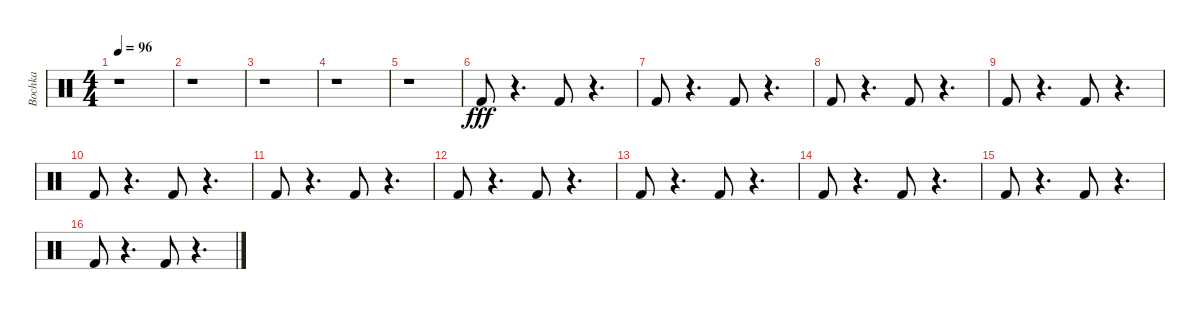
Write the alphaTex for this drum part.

\track ("Bochka" "Bochka") {instrument percussion}
\staff {score}
\articulation defaults
\ts (4 4)
\tempo 96
\clef neutral
\ks c
r.1{dy fff} |
r.1 |
r.1 |
r.1 |
r.1 |
"Kick (hit) 2".8 r.4{d} "Kick (hit) 2".8 r.4{d} |
"Kick (hit) 2".8 r.4{d} "Kick (hit) 2".8 r.4{d} |
"Kick (hit) 2".8 r.4{d} "Kick (hit) 2".8 r.4{d} |
"Kick (hit) 2".8 r.4{d} "Kick (hit) 2".8 r.4{d} |
"Kick (hit) 2".8 r.4{d} "Kick (hit) 2".8 r.4{d} |
"Kick (hit) 2".8 r.4{d} "Kick (hit) 2".8 r.4{d} |
"Kick (hit) 2".8 r.4{d} "Kick (hit) 2".8 r.4{d} |
"Kick (hit) 2".8 r.4{d} "Kick (hit) 2".8 r.4{d} |
"Kick (hit) 2".8 r.4{d} "Kick (hit) 2".8 r.4{d} |
"Kick (hit) 2".8 r.4{d} "Kick (hit) 2".8 r.4{d} |
"Kick (hit) 2".8 r.4{d} "Kick (hit) 2".8 r.4{d}
